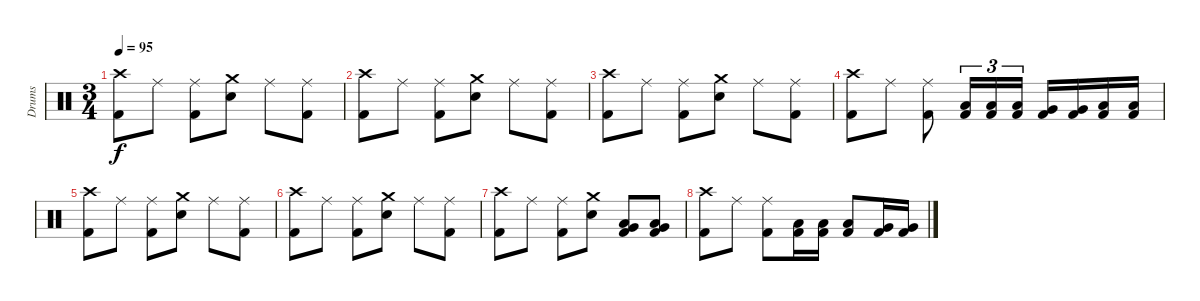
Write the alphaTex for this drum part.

\track ("Drums" "Drums") {instrument percussion}
\staff {score}
\articulation defaults
\ts (3 4)
\tempo 95
\clef neutral
\ks c
("Crash high (hit)" "Kick (hit) 2").8{dy f} "Ride (middle)".8 ("Ride (middle)" "Kick (hit) 2").8 ("Crash medium (hit)" "Electric Snare (hit)").8 "Ride (middle)".8 ("Ride (middle)" "Kick (hit) 2").8 |
("Crash high (hit)" "Kick (hit) 2").8 "Ride (middle)".8 ("Ride (middle)" "Kick (hit) 2").8 ("Crash medium (hit)" "Electric Snare (hit)").8 "Ride (middle)".8 ("Ride (middle)" "Kick (hit) 2").8 |
("Crash high (hit)" "Kick (hit) 2").8 "Ride (middle)".8 ("Ride (middle)" "Kick (hit) 2").8 ("Crash medium (hit)" "Electric Snare (hit)").8 "Ride (middle)".8 ("Ride (middle)" "Kick (hit) 2").8 |
("Crash high (hit)" "Kick (hit) 2").8 "Ride (middle)".8 ("Ride (middle)" "Kick (hit) 2").8 ("Low Tom (hit)" "Kick (hit) 2").16{tu (3 2)} ("Low Tom (hit)" "Kick (hit) 2").16{tu (3 2)} ("Low Tom (hit)" "Kick (hit) 2").16{tu (3 2)} ("Very Low Tom (hit)" "Kick (hit) 2").16 ("Very Low Tom (hit)" "Kick (hit) 2").16 ("Low Floor Tom (hit)" "Kick (hit) 2").16 ("Low Floor Tom (hit)" "Kick (hit) 2").16 |
("Crash high (hit)" "Kick (hit) 2").8 "Ride (middle)".8 ("Ride (middle)" "Kick (hit) 2").8 ("Crash medium (hit)" "Electric Snare (hit)").8 "Ride (middle)".8 ("Ride (middle)" "Kick (hit) 2").8 |
("Crash high (hit)" "Kick (hit) 2").8 "Ride (middle)".8 ("Ride (middle)" "Kick (hit) 2").8 ("Crash medium (hit)" "Electric Snare (hit)").8 "Ride (middle)".8 ("Ride (middle)" "Kick (hit) 2").8 |
("Crash high (hit)" "Kick (hit) 2").8 "Ride (middle)".8 ("Ride (middle)" "Kick (hit) 2").8 ("Crash medium (hit)" "Electric Snare (hit)").8 ("Low Tom (hit)" "Very Low Tom (hit)" "Kick (hit) 2").8 ("Low Tom (hit)" "Very Low Tom (hit)" "Kick (hit) 2").8 |
("Crash high (hit)" "Kick (hit) 2").8 "Ride (middle)".8 ("Ride (middle)" "Kick (hit) 2").8 ("Low Tom (hit)" "Kick (hit) 2").16 ("Low Tom (hit)" "Kick (hit) 2").16 ("Low Tom (hit)" "Kick (hit) 2").8 ("Very Low Tom (hit)" "Kick (hit) 2").16 ("Very Low Tom (hit)" "Kick (hit) 2").16
